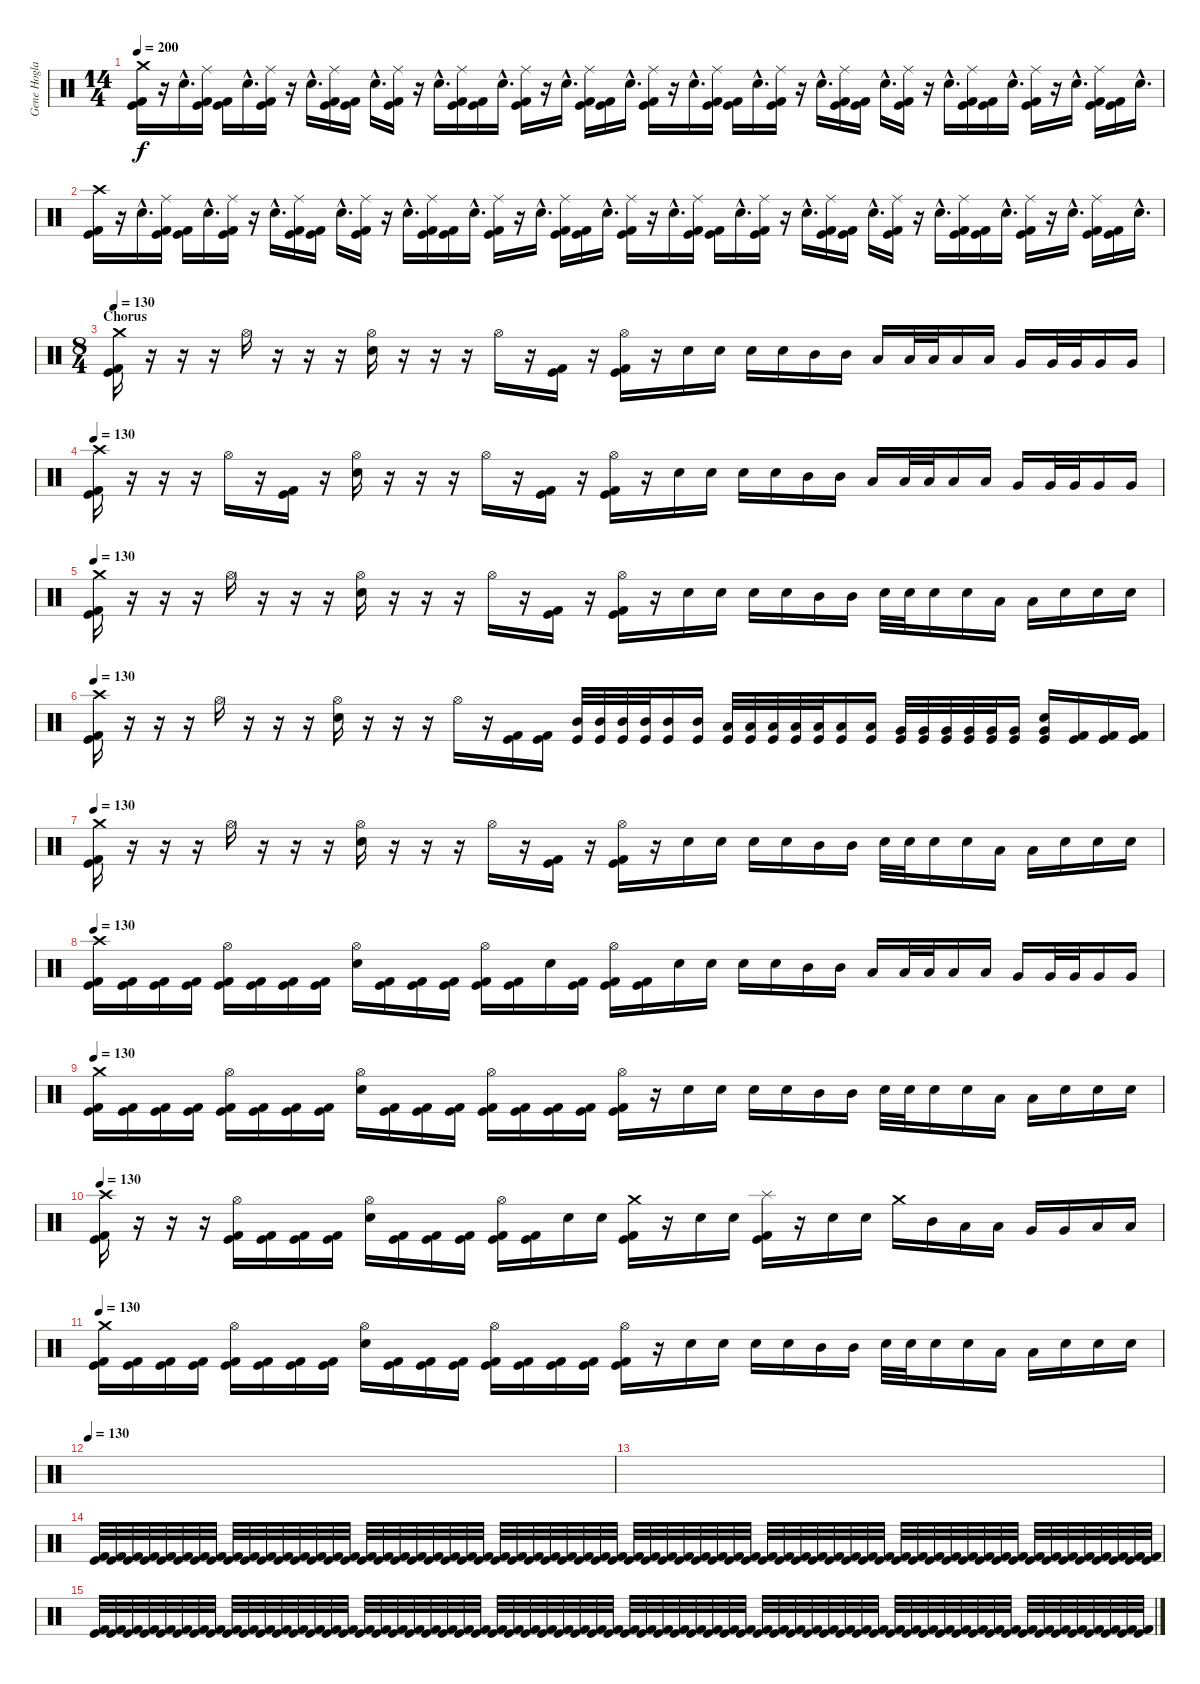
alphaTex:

\track ("Gene Hoglan" "Gene Hogla") {instrument percussion}
\staff {score}
\articulation defaults
\ts (14 4)
\tempo 200
\clef neutral
\ks c
("Crash medium (hit)" "Kick (hit) 2" "Kick (hit)").16{dy f} r.16 "Electric Snare (hit)"{hac}.16{d} ("Ride (middle)" "Kick (hit) 2" "Kick (hit)").16 ("Kick (hit) 2" "Kick (hit)").16 "Electric Snare (hit)"{hac}.16{d} ("Ride (middle)" "Kick (hit) 2" "Kick (hit)").16 r.16 "Electric Snare (hit)"{hac}.16{d} ("Ride (middle)" "Kick (hit) 2" "Kick (hit)").16 ("Kick (hit) 2" "Kick (hit)").16 "Electric Snare (hit)"{hac}.16{d} ("Ride (middle)" "Kick (hit) 2" "Kick (hit)").16 r.16 "Electric Snare (hit)"{hac}.16{d} ("Ride (middle)" "Kick (hit) 2" "Kick (hit)").16 ("Kick (hit) 2" "Kick (hit)").16 "Electric Snare (hit)"{hac}.16{d} ("Ride (middle)" "Kick (hit) 2" "Kick (hit)").16 r.16 "Electric Snare (hit)"{hac}.16{d} ("Ride (middle)" "Kick (hit) 2" "Kick (hit)").16 ("Kick (hit) 2" "Kick (hit)").16 "Electric Snare (hit)"{hac}.16{d} ("Ride (middle)" "Kick (hit) 2" "Kick (hit)").16 r.16 "Electric Snare (hit)"{hac}.16{d} ("Ride (middle)" "Kick (hit) 2" "Kick (hit)").16 ("Kick (hit) 2" "Kick (hit)").16 "Electric Snare (hit)"{hac}.16{d} ("Ride (middle)" "Kick (hit) 2" "Kick (hit)").16 r.16 "Electric Snare (hit)"{hac}.16{d} ("Ride (middle)" "Kick (hit) 2" "Kick (hit)").16 ("Kick (hit) 2" "Kick (hit)").16 "Electric Snare (hit)"{hac}.16{d} ("Ride (middle)" "Kick (hit) 2" "Kick (hit)").16 r.16 "Electric Snare (hit)"{hac}.16{d} ("Ride (middle)" "Kick (hit) 2" "Kick (hit)").16 ("Kick (hit) 2" "Kick (hit)").16 "Electric Snare (hit)"{hac}.16{d} ("Ride (middle)" "Kick (hit) 2" "Kick (hit)").16 r.16 "Electric Snare (hit)"{hac}.16{d} ("Ride (middle)" "Kick (hit) 2" "Kick (hit)").16 ("Kick (hit) 2" "Kick (hit)").16 "Electric Snare (hit)"{hac}.16{d} |
("Crash high (hit)" "Kick (hit) 2" "Kick (hit)").16 r.16 "Electric Snare (hit)"{hac}.16{d} ("Ride (middle)" "Kick (hit) 2" "Kick (hit)").16 ("Kick (hit) 2" "Kick (hit)").16 "Electric Snare (hit)"{hac}.16{d} ("Ride (middle)" "Kick (hit) 2" "Kick (hit)").16 r.16 "Electric Snare (hit)"{hac}.16{d} ("Ride (middle)" "Kick (hit) 2" "Kick (hit)").16 ("Kick (hit) 2" "Kick (hit)").16 "Electric Snare (hit)"{hac}.16{d} ("Ride (middle)" "Kick (hit) 2" "Kick (hit)").16 r.16 "Electric Snare (hit)"{hac}.16{d} ("Ride (middle)" "Kick (hit) 2" "Kick (hit)").16 ("Kick (hit) 2" "Kick (hit)").16 "Electric Snare (hit)"{hac}.16{d} ("Ride (middle)" "Kick (hit) 2" "Kick (hit)").16 r.16 "Electric Snare (hit)"{hac}.16{d} ("Ride (middle)" "Kick (hit) 2" "Kick (hit)").16 ("Kick (hit) 2" "Kick (hit)").16 "Electric Snare (hit)"{hac}.16{d} ("Ride (middle)" "Kick (hit) 2" "Kick (hit)").16 r.16 "Electric Snare (hit)"{hac}.16{d} ("Ride (middle)" "Kick (hit) 2" "Kick (hit)").16 ("Kick (hit) 2" "Kick (hit)").16 "Electric Snare (hit)"{hac}.16{d} ("Ride (middle)" "Kick (hit) 2" "Kick (hit)").16 r.16 "Electric Snare (hit)"{hac}.16{d} ("Ride (middle)" "Kick (hit) 2" "Kick (hit)").16 ("Kick (hit) 2" "Kick (hit)").16 "Electric Snare (hit)"{hac}.16{d} ("Ride (middle)" "Kick (hit) 2" "Kick (hit)").16 r.16 "Electric Snare (hit)"{hac}.16{d} ("Ride (middle)" "Kick (hit) 2" "Kick (hit)").16 ("Kick (hit) 2" "Kick (hit)").16 "Electric Snare (hit)"{hac}.16{d} ("Ride (middle)" "Kick (hit) 2" "Kick (hit)").16 r.16 "Electric Snare (hit)"{hac}.16{d} ("Ride (middle)" "Kick (hit) 2" "Kick (hit)").16 ("Kick (hit) 2" "Kick (hit)").16 "Electric Snare (hit)"{hac}.16{d} |
\ts (8 4)
\section ("" "Chorus")
\tempo 130
("Crash medium (hit)" "Kick (hit) 2" "Kick (hit)").16 r.16 r.16 r.16 "Hi-Hat (open)".16 r.16 r.16 r.16 ("Hi-Hat (open)" "Electric Snare (hit)").16 r.16 r.16 r.16 "Hi-Hat (open)".16 r.16 ("Kick (hit) 2" "Kick (hit)").16 r.16 ("Hi-Hat (open)" "Kick (hit) 2" "Kick (hit)").16 r.16 "Electric Snare (hit)".16 "Electric Snare (hit)".16 "Electric Snare (hit)".16 "Electric Snare (hit)".16 "Mid Tom (hit)".16 "Mid Tom (hit)".16 "Low Tom (hit)".16 "Low Tom (hit)".32 "Low Tom (hit)".32 "Low Tom (hit)".16 "Low Tom (hit)".16 "Very Low Tom (hit)".16 "Very Low Tom (hit)".32 "Very Low Tom (hit)".32 "Very Low Tom (hit)".16 "Very Low Tom (hit)".16 |
\tempo 130
("Crash high (hit)" "Kick (hit) 2" "Kick (hit)").16 r.16 r.16 r.16 "Hi-Hat (open)".16 r.16 ("Kick (hit) 2" "Kick (hit)").16 r.16 ("Hi-Hat (open)" "Electric Snare (hit)").16 r.16 r.16 r.16 "Hi-Hat (open)".16 r.16 ("Kick (hit) 2" "Kick (hit)").16 r.16 ("Hi-Hat (open)" "Kick (hit) 2" "Kick (hit)").16 r.16 "Electric Snare (hit)".16 "Electric Snare (hit)".16 "Electric Snare (hit)".16 "Electric Snare (hit)".16 "Mid Tom (hit)".16 "Mid Tom (hit)".16 "Low Tom (hit)".16 "Low Tom (hit)".32 "Low Tom (hit)".32 "Low Tom (hit)".16 "Low Tom (hit)".16 "Very Low Tom (hit)".16 "Very Low Tom (hit)".32 "Very Low Tom (hit)".32 "Very Low Tom (hit)".16 "Very Low Tom (hit)".16 |
\tempo 130
("Crash medium (hit)" "Kick (hit) 2" "Kick (hit)").16 r.16 r.16 r.16 "Hi-Hat (open)".16 r.16 r.16 r.16 ("Hi-Hat (open)" "Electric Snare (hit)").16 r.16 r.16 r.16 "Hi-Hat (open)".16 r.16 ("Kick (hit) 2" "Kick (hit)").16 r.16 ("Hi-Hat (open)" "Kick (hit) 2" "Kick (hit)").16 r.16 "Electric Snare (hit)".16 "Electric Snare (hit)".16 "Electric Snare (hit)".16 "Electric Snare (hit)".16 "Mid Tom (hit)".16 "Mid Tom (hit)".16 "Electric Snare (hit)".32 "Electric Snare (hit)".32 "Electric Snare (hit)".16 "Electric Snare (hit)".16 "Low Tom (hit)".16 "Low Tom (hit)".16 "Electric Snare (hit)".16 "Electric Snare (hit)".16 "Electric Snare (hit)".16 |
\tempo 130
("Crash high (hit)" "Kick (hit) 2" "Kick (hit)").16 r.16 r.16 r.16 "Hi-Hat (open)".16 r.16 r.16 r.16 ("Hi-Hat (open)" "Electric Snare (hit)").16 r.16 r.16 r.16 "Hi-Hat (open)".16 r.16 ("Kick (hit) 2" "Kick (hit)").16 ("Kick (hit) 2" "Kick (hit)").16 ("Mid Tom (hit)" "Kick (hit)").32 ("Mid Tom (hit)" "Kick (hit)").32 ("Mid Tom (hit)" "Kick (hit)").32 ("Mid Tom (hit)" "Kick (hit)").32 ("Mid Tom (hit)" "Kick (hit)").16 ("Mid Tom (hit)" "Kick (hit)").16 ("Low Tom (hit)" "Kick (hit)").32 ("Low Tom (hit)" "Kick (hit)").32 ("Low Tom (hit)" "Kick (hit)").32 ("Low Tom (hit)" "Kick (hit)").32 ("Low Tom (hit)" "Kick (hit)").32 ("Low Tom (hit)" "Kick (hit)").16 ("Low Tom (hit)" "Kick (hit)").16 ("Very Low Tom (hit)" "Kick (hit)").32 ("Very Low Tom (hit)" "Kick (hit)").32 ("Very Low Tom (hit)" "Kick (hit)").32 ("Very Low Tom (hit)" "Kick (hit)").32 ("Very Low Tom (hit)" "Kick (hit)").32 ("Very Low Tom (hit)" "Kick (hit)").16 ("Very Low Tom (hit)" "Electric Snare (hit)" "Kick (hit)").16 ("Kick (hit)" "Kick (hit) 2").16 ("Kick (hit)" "Kick (hit) 2").16 ("Kick (hit)" "Kick (hit) 2").16 |
\tempo 130
("Crash medium (hit)" "Kick (hit) 2" "Kick (hit)").16 r.16 r.16 r.16 "Hi-Hat (open)".16 r.16 r.16 r.16 ("Hi-Hat (open)" "Electric Snare (hit)").16 r.16 r.16 r.16 "Hi-Hat (open)".16 r.16 ("Kick (hit) 2" "Kick (hit)").16 r.16 ("Hi-Hat (open)" "Kick (hit) 2" "Kick (hit)").16 r.16 "Electric Snare (hit)".16 "Electric Snare (hit)".16 "Electric Snare (hit)".16 "Electric Snare (hit)".16 "Mid Tom (hit)".16 "Mid Tom (hit)".16 "Electric Snare (hit)".32 "Electric Snare (hit)".32 "Electric Snare (hit)".16 "Electric Snare (hit)".16 "Low Tom (hit)".16 "Low Tom (hit)".16 "Electric Snare (hit)".16 "Electric Snare (hit)".16 "Electric Snare (hit)".16 |
\tempo 130
("Crash high (hit)" "Kick (hit) 2" "Kick (hit)").16 ("Kick (hit) 2" "Kick (hit)").16 ("Kick (hit) 2" "Kick (hit)").16 ("Kick (hit) 2" "Kick (hit)").16 ("Hi-Hat (open)" "Kick (hit) 2" "Kick (hit)").16 ("Kick (hit) 2" "Kick (hit)").16 ("Kick (hit) 2" "Kick (hit)").16 ("Kick (hit) 2" "Kick (hit)").16 ("Hi-Hat (open)" "Electric Snare (hit)").16 ("Kick (hit)" "Kick (hit) 2").16 ("Kick (hit) 2" "Kick (hit)").16 ("Kick (hit)" "Kick (hit) 2").16 ("Hi-Hat (open)" "Kick (hit) 2" "Kick (hit)").16 ("Kick (hit) 2" "Kick (hit)").16 "Electric Snare (hit)".16 ("Kick (hit) 2" "Kick (hit)").16 ("Hi-Hat (open)" "Kick (hit) 2" "Kick (hit)").16 ("Kick (hit) 2" "Kick (hit)").16 "Electric Snare (hit)".16 "Electric Snare (hit)".16 "Electric Snare (hit)".16 "Electric Snare (hit)".16 "Mid Tom (hit)".16 "Mid Tom (hit)".16 "Low Tom (hit)".16 "Low Tom (hit)".32 "Low Tom (hit)".32 "Low Tom (hit)".16 "Low Tom (hit)".16 "Very Low Tom (hit)".16 "Very Low Tom (hit)".32 "Very Low Tom (hit)".32 "Very Low Tom (hit)".16 "Very Low Tom (hit)".16 |
\tempo 130
("Crash medium (hit)" "Kick (hit) 2" "Kick (hit)").16 ("Kick (hit) 2" "Kick (hit)").16 ("Kick (hit) 2" "Kick (hit)").16 ("Kick (hit) 2" "Kick (hit)").16 ("Hi-Hat (open)" "Kick (hit) 2" "Kick (hit)").16 ("Kick (hit)" "Kick (hit) 2").16 ("Kick (hit) 2" "Kick (hit)").16 ("Kick (hit)" "Kick (hit) 2").16 ("Hi-Hat (open)" "Electric Snare (hit)").16 ("Kick (hit) 2" "Kick (hit)").16 ("Kick (hit)" "Kick (hit) 2").16 ("Kick (hit) 2" "Kick (hit)").16 ("Hi-Hat (open)" "Kick (hit)" "Kick (hit) 2").16 ("Kick (hit) 2" "Kick (hit)").16 ("Kick (hit) 2" "Kick (hit)").16 ("Kick (hit)" "Kick (hit) 2").16 ("Hi-Hat (open)" "Kick (hit) 2" "Kick (hit)").16 r.16 "Electric Snare (hit)".16 "Electric Snare (hit)".16 "Electric Snare (hit)".16 "Electric Snare (hit)".16 "Mid Tom (hit)".16 "Mid Tom (hit)".16 "Electric Snare (hit)".32 "Electric Snare (hit)".32 "Electric Snare (hit)".16 "Electric Snare (hit)".16 "Low Tom (hit)".16 "Low Tom (hit)".16 "Electric Snare (hit)".16 "Electric Snare (hit)".16 "Electric Snare (hit)".16 |
\tempo 130
("Crash high (hit)" "Kick (hit) 2" "Kick (hit)").16 r.16 r.16 r.16 ("Hi-Hat (open)" "Kick (hit) 2" "Kick (hit)").16 ("Kick (hit) 2" "Kick (hit)").16 ("Kick (hit)" "Kick (hit) 2").16 ("Kick (hit) 2" "Kick (hit)").16 ("Hi-Hat (open)" "Electric Snare (hit)").16 ("Kick (hit)" "Kick (hit) 2").16 ("Kick (hit) 2" "Kick (hit)").16 ("Kick (hit)" "Kick (hit) 2").16 ("Hi-Hat (open)" "Kick (hit) 2" "Kick (hit)").16 ("Kick (hit) 2" "Kick (hit)").16 "Electric Snare (hit)".16 "Electric Snare (hit)".16 ("Crash medium (hit)" "Kick (hit) 2" "Kick (hit)").16 r.16 "Electric Snare (hit)".16 "Electric Snare (hit)".16 ("Splash (hit)" "Kick (hit) 2" "Kick (hit)").16 r.16 "Electric Snare (hit)".16 "Electric Snare (hit)".16 "Crash medium (hit)".16 "Mid Tom (hit)".16 "Low Tom (hit)".16 "Low Tom (hit)".16 "Very Low Tom (hit)".16 "Very Low Tom (hit)".16 "Low Floor Tom (hit)".16 "Low Floor Tom (hit)".16 |
\tempo 130
("Crash medium (hit)" "Kick (hit) 2" "Kick (hit)").16 ("Kick (hit) 2" "Kick (hit)").16 ("Kick (hit)" "Kick (hit) 2").16 ("Kick (hit) 2" "Kick (hit)").16 ("Hi-Hat (open)" "Kick (hit)" "Kick (hit) 2").16 ("Kick (hit) 2" "Kick (hit)").16 ("Kick (hit)" "Kick (hit) 2").16 ("Kick (hit) 2" "Kick (hit)").16 ("Hi-Hat (open)" "Electric Snare (hit)").16 ("Kick (hit)" "Kick (hit) 2").16 ("Kick (hit) 2" "Kick (hit)").16 ("Kick (hit)" "Kick (hit) 2").16 ("Hi-Hat (open)" "Kick (hit) 2" "Kick (hit)").16 ("Kick (hit)" "Kick (hit) 2").16 ("Kick (hit) 2" "Kick (hit)").16 ("Kick (hit) 2" "Kick (hit)").16 ("Hi-Hat (open)" "Kick (hit) 2" "Kick (hit)").16 r.16 "Electric Snare (hit)".16 "Electric Snare (hit)".16 "Electric Snare (hit)".16 "Electric Snare (hit)".16 "Mid Tom (hit)".16 "Mid Tom (hit)".16 "Electric Snare (hit)".32 "Electric Snare (hit)".32 "Electric Snare (hit)".16 "Electric Snare (hit)".16 "Low Tom (hit)".16 "Low Tom (hit)".16 "Electric Snare (hit)".16 "Electric Snare (hit)".16 "Electric Snare (hit)".16 |
\tempo 130
|
|
("Kick (hit) 2" "Kick (hit)").32 ("Kick (hit) 2" "Kick (hit)").32 ("Kick (hit) 2" "Kick (hit)").32 ("Kick (hit) 2" "Kick (hit)").32 ("Kick (hit) 2" "Kick (hit)").32 ("Kick (hit) 2" "Kick (hit)").32 ("Kick (hit) 2" "Kick (hit)").32 ("Kick (hit) 2" "Kick (hit)").32 ("Kick (hit) 2" "Kick (hit)").32 ("Kick (hit) 2" "Kick (hit)").32 ("Kick (hit) 2" "Kick (hit)").32 ("Kick (hit) 2" "Kick (hit)").32 ("Kick (hit) 2" "Kick (hit)").32 ("Kick (hit) 2" "Kick (hit)").32 ("Kick (hit) 2" "Kick (hit)").32 ("Kick (hit) 2" "Kick (hit)").32 ("Kick (hit) 2" "Kick (hit)").32 ("Kick (hit) 2" "Kick (hit)").32 ("Kick (hit) 2" "Kick (hit)").32 ("Kick (hit) 2" "Kick (hit)").32 ("Kick (hit) 2" "Kick (hit)").32 ("Kick (hit) 2" "Kick (hit)").32 ("Kick (hit) 2" "Kick (hit)").32 ("Kick (hit) 2" "Kick (hit)").32 ("Kick (hit) 2" "Kick (hit)").32 ("Kick (hit) 2" "Kick (hit)").32 ("Kick (hit) 2" "Kick (hit)").32 ("Kick (hit) 2" "Kick (hit)").32 ("Kick (hit) 2" "Kick (hit)").32 ("Kick (hit) 2" "Kick (hit)").32 ("Kick (hit) 2" "Kick (hit)").32 ("Kick (hit) 2" "Kick (hit)").32 ("Kick (hit) 2" "Kick (hit)").32 ("Kick (hit) 2" "Kick (hit)").32 ("Kick (hit) 2" "Kick (hit)").32 ("Kick (hit) 2" "Kick (hit)").32 ("Kick (hit) 2" "Kick (hit)").32 ("Kick (hit) 2" "Kick (hit)").32 ("Kick (hit) 2" "Kick (hit)").32 ("Kick (hit) 2" "Kick (hit)").32 ("Kick (hit) 2" "Kick (hit)").32 ("Kick (hit) 2" "Kick (hit)").32 ("Kick (hit) 2" "Kick (hit)").32 ("Kick (hit) 2" "Kick (hit)").32 ("Kick (hit) 2" "Kick (hit)").32 ("Kick (hit) 2" "Kick (hit)").32 ("Kick (hit) 2" "Kick (hit)").32 ("Kick (hit) 2" "Kick (hit)").32 ("Kick (hit) 2" "Kick (hit)").32 ("Kick (hit) 2" "Kick (hit)").32 ("Kick (hit) 2" "Kick (hit)").32 ("Kick (hit) 2" "Kick (hit)").32 ("Kick (hit) 2" "Kick (hit)").32 ("Kick (hit) 2" "Kick (hit)").32 ("Kick (hit) 2" "Kick (hit)").32 ("Kick (hit) 2" "Kick (hit)").32 ("Kick (hit) 2" "Kick (hit)").32 ("Kick (hit) 2" "Kick (hit)").32 ("Kick (hit) 2" "Kick (hit)").32 ("Kick (hit) 2" "Kick (hit)").32 ("Kick (hit) 2" "Kick (hit)").32 ("Kick (hit) 2" "Kick (hit)").32 ("Kick (hit) 2" "Kick (hit)").32 ("Kick (hit) 2" "Kick (hit)").32 |
("Kick (hit) 2" "Kick (hit)").32 ("Kick (hit) 2" "Kick (hit)").32 ("Kick (hit) 2" "Kick (hit)").32 ("Kick (hit) 2" "Kick (hit)").32 ("Kick (hit) 2" "Kick (hit)").32 ("Kick (hit) 2" "Kick (hit)").32 ("Kick (hit) 2" "Kick (hit)").32 ("Kick (hit) 2" "Kick (hit)").32 ("Kick (hit) 2" "Kick (hit)").32 ("Kick (hit) 2" "Kick (hit)").32 ("Kick (hit) 2" "Kick (hit)").32 ("Kick (hit) 2" "Kick (hit)").32 ("Kick (hit) 2" "Kick (hit)").32 ("Kick (hit) 2" "Kick (hit)").32 ("Kick (hit) 2" "Kick (hit)").32 ("Kick (hit) 2" "Kick (hit)").32 ("Kick (hit) 2" "Kick (hit)").32 ("Kick (hit) 2" "Kick (hit)").32 ("Kick (hit) 2" "Kick (hit)").32 ("Kick (hit) 2" "Kick (hit)").32 ("Kick (hit) 2" "Kick (hit)").32 ("Kick (hit) 2" "Kick (hit)").32 ("Kick (hit) 2" "Kick (hit)").32 ("Kick (hit) 2" "Kick (hit)").32 ("Kick (hit) 2" "Kick (hit)").32 ("Kick (hit) 2" "Kick (hit)").32 ("Kick (hit) 2" "Kick (hit)").32 ("Kick (hit) 2" "Kick (hit)").32 ("Kick (hit) 2" "Kick (hit)").32 ("Kick (hit) 2" "Kick (hit)").32 ("Kick (hit) 2" "Kick (hit)").32 ("Kick (hit) 2" "Kick (hit)").32 ("Kick (hit) 2" "Kick (hit)").32 ("Kick (hit) 2" "Kick (hit)").32 ("Kick (hit) 2" "Kick (hit)").32 ("Kick (hit) 2" "Kick (hit)").32 ("Kick (hit) 2" "Kick (hit)").32 ("Kick (hit) 2" "Kick (hit)").32 ("Kick (hit) 2" "Kick (hit)").32 ("Kick (hit) 2" "Kick (hit)").32 ("Kick (hit) 2" "Kick (hit)").32 ("Kick (hit) 2" "Kick (hit)").32 ("Kick (hit) 2" "Kick (hit)").32 ("Kick (hit) 2" "Kick (hit)").32 ("Kick (hit) 2" "Kick (hit)").32 ("Kick (hit) 2" "Kick (hit)").32 ("Kick (hit) 2" "Kick (hit)").32 ("Kick (hit) 2" "Kick (hit)").32 ("Kick (hit) 2" "Kick (hit)").32 ("Kick (hit) 2" "Kick (hit)").32 ("Kick (hit) 2" "Kick (hit)").32 ("Kick (hit) 2" "Kick (hit)").32 ("Kick (hit) 2" "Kick (hit)").32 ("Kick (hit) 2" "Kick (hit)").32 ("Kick (hit) 2" "Kick (hit)").32 ("Kick (hit) 2" "Kick (hit)").32 ("Kick (hit) 2" "Kick (hit)").32 ("Kick (hit) 2" "Kick (hit)").32 ("Kick (hit) 2" "Kick (hit)").32 ("Kick (hit) 2" "Kick (hit)").32 ("Kick (hit) 2" "Kick (hit)").32 ("Kick (hit) 2" "Kick (hit)").32 ("Kick (hit) 2" "Kick (hit)").32 ("Kick (hit) 2" "Kick (hit)").32
